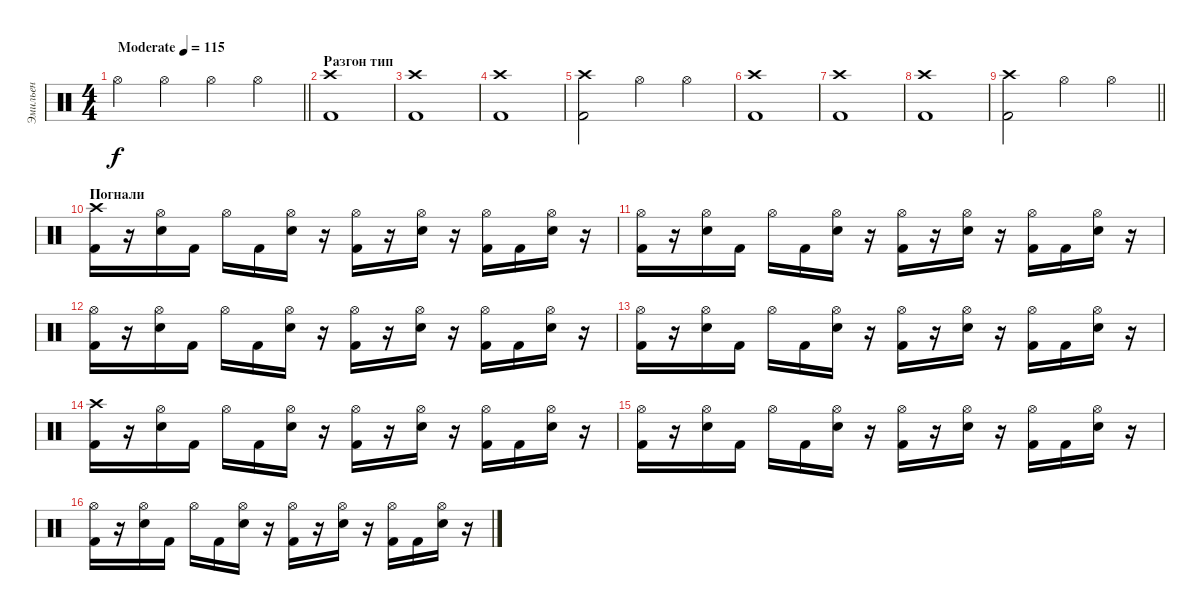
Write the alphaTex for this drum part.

\track ("Эмильен" "Эмильен") {instrument percussion}
\staff {score}
\articulation defaults
\ts (4 4)
\tempo (115 "Moderate")
\clef neutral
\barLineRight lightlight
\ks c "Hi-Hat (open)".4{dy f} "Hi-Hat (open)".4 "Hi-Hat (open)".4 "Hi-Hat (open)".4
|
\section ("" "Разгон тип")
("Crash high (hit)" "Kick (hit) 2").1 |
("Crash high (hit)" "Kick (hit) 2").1 |
("Crash high (hit)" "Kick (hit) 2").1 |
("Crash high (hit)" "Kick (hit) 2").2 "Hi-Hat (open)".4 "Hi-Hat (open)".4 |
("Crash high (hit)" "Kick (hit) 2").1 |
("Crash high (hit)" "Kick (hit) 2").1 |
("Crash high (hit)" "Kick (hit) 2").1 |
\barLineRight lightlight
("Crash high (hit)" "Kick (hit) 2").2 "Hi-Hat (open)".4 "Hi-Hat (open)".4 |
\section ("" "Погнали")
("Crash high (hit)" "Kick (hit) 2").16 r.16 ("Hi-Hat (open)" "Snare (hit) 2").16 "Kick (hit) 2".16 "Hi-Hat (open)".16 "Kick (hit) 2".16 ("Hi-Hat (open)" "Snare (hit) 2").16 r.16 ("Hi-Hat (open)" "Kick (hit) 2").16 r.16 ("Hi-Hat (open)" "Snare (hit) 2").16 r.16 ("Hi-Hat (open)" "Kick (hit) 2").16 "Kick (hit) 2".16 ("Hi-Hat (open)" "Snare (hit) 2").16 r.16 |
("Hi-Hat (open)" "Kick (hit) 2").16 r.16 ("Hi-Hat (open)" "Snare (hit) 2").16 "Kick (hit) 2".16 "Hi-Hat (open)".16 "Kick (hit) 2".16 ("Hi-Hat (open)" "Snare (hit) 2").16 r.16 ("Hi-Hat (open)" "Kick (hit) 2").16 r.16 ("Hi-Hat (open)" "Snare (hit) 2").16 r.16 ("Hi-Hat (open)" "Kick (hit) 2").16 "Kick (hit) 2".16 ("Hi-Hat (open)" "Snare (hit) 2").16 r.16 |
("Hi-Hat (open)" "Kick (hit) 2").16 r.16 ("Hi-Hat (open)" "Snare (hit) 2").16 "Kick (hit) 2".16 "Hi-Hat (open)".16 "Kick (hit) 2".16 ("Hi-Hat (open)" "Snare (hit) 2").16 r.16 ("Hi-Hat (open)" "Kick (hit) 2").16 r.16 ("Hi-Hat (open)" "Snare (hit) 2").16 r.16 ("Hi-Hat (open)" "Kick (hit) 2").16 "Kick (hit) 2".16 ("Hi-Hat (open)" "Snare (hit) 2").16 r.16 |
("Hi-Hat (open)" "Kick (hit) 2").16 r.16 ("Hi-Hat (open)" "Snare (hit) 2").16 "Kick (hit) 2".16 "Hi-Hat (open)".16 "Kick (hit) 2".16 ("Hi-Hat (open)" "Snare (hit) 2").16 r.16 ("Hi-Hat (open)" "Kick (hit) 2").16 r.16 ("Hi-Hat (open)" "Snare (hit) 2").16 r.16 ("Hi-Hat (open)" "Kick (hit) 2").16 "Kick (hit) 2".16 ("Hi-Hat (open)" "Snare (hit) 2").16 r.16 |
("Crash high (hit)" "Kick (hit) 2").16 r.16 ("Hi-Hat (open)" "Snare (hit) 2").16 "Kick (hit) 2".16 "Hi-Hat (open)".16 "Kick (hit) 2".16 ("Hi-Hat (open)" "Snare (hit) 2").16 r.16 ("Hi-Hat (open)" "Kick (hit) 2").16 r.16 ("Hi-Hat (open)" "Snare (hit) 2").16 r.16 ("Hi-Hat (open)" "Kick (hit) 2").16 "Kick (hit) 2".16 ("Hi-Hat (open)" "Snare (hit) 2").16 r.16 |
("Hi-Hat (open)" "Kick (hit) 2").16 r.16 ("Hi-Hat (open)" "Snare (hit) 2").16 "Kick (hit) 2".16 "Hi-Hat (open)".16 "Kick (hit) 2".16 ("Hi-Hat (open)" "Snare (hit) 2").16 r.16 ("Hi-Hat (open)" "Kick (hit) 2").16 r.16 ("Hi-Hat (open)" "Snare (hit) 2").16 r.16 ("Hi-Hat (open)" "Kick (hit) 2").16 "Kick (hit) 2".16 ("Hi-Hat (open)" "Snare (hit) 2").16 r.16 |
("Hi-Hat (open)" "Kick (hit) 2").16 r.16 ("Hi-Hat (open)" "Snare (hit) 2").16 "Kick (hit) 2".16 "Hi-Hat (open)".16 "Kick (hit) 2".16 ("Hi-Hat (open)" "Snare (hit) 2").16 r.16 ("Hi-Hat (open)" "Kick (hit) 2").16 r.16 ("Hi-Hat (open)" "Snare (hit) 2").16 r.16 ("Hi-Hat (open)" "Kick (hit) 2").16 "Kick (hit) 2".16 ("Hi-Hat (open)" "Snare (hit) 2").16 r.16
